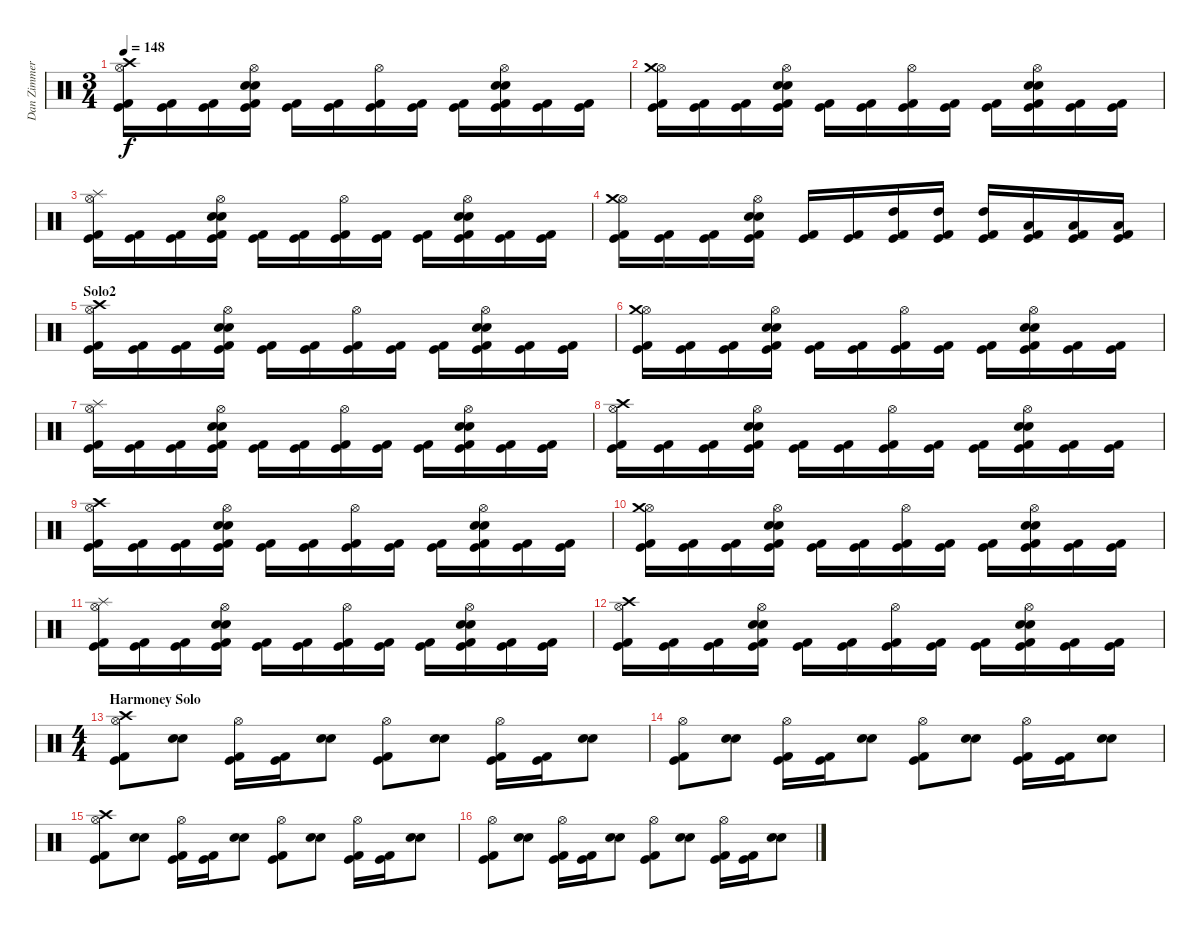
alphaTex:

\track ("Dan Zimmerman<Drum>" "Dan Zimmer") {instrument percussion}
\staff {score}
\articulation defaults
\ts (3 4)
\tempo 148
\clef neutral
\ks c
("Hi-Hat (open)" "Crash high (hit)" "Kick (hit) 2" "Kick (hit)").16{dy f} ("Kick (hit) 2" "Kick (hit)").16 ("Kick (hit) 2" "Kick (hit)").16 ("Hi-Hat (open)" "Electric Snare (hit)" "Snare (hit) 2" "Kick (hit) 2" "Kick (hit)").16 ("Kick (hit) 2" "Kick (hit)").16 ("Kick (hit) 2" "Kick (hit)").16 ("Hi-Hat (open)" "Kick (hit) 2" "Kick (hit)").16 ("Kick (hit) 2" "Kick (hit)").16 ("Kick (hit) 2" "Kick (hit)").16 ("Hi-Hat (open)" "Electric Snare (hit)" "Snare (hit) 2" "Kick (hit) 2" "Kick (hit)").16 ("Kick (hit) 2" "Kick (hit)").16 ("Kick (hit) 2" "Kick (hit)").16 |
("Hi-Hat (open)" "Crash medium (hit)" "Kick (hit) 2" "Kick (hit)").16 ("Kick (hit) 2" "Kick (hit)").16 ("Kick (hit) 2" "Kick (hit)").16 ("Hi-Hat (open)" "Electric Snare (hit)" "Snare (hit) 2" "Kick (hit) 2" "Kick (hit)").16 ("Kick (hit) 2" "Kick (hit)").16 ("Kick (hit) 2" "Kick (hit)").16 ("Hi-Hat (open)" "Kick (hit) 2" "Kick (hit)").16 ("Kick (hit) 2" "Kick (hit)").16 ("Kick (hit) 2" "Kick (hit)").16 ("Hi-Hat (open)" "Electric Snare (hit)" "Snare (hit) 2" "Kick (hit) 2" "Kick (hit)").16 ("Kick (hit) 2" "Kick (hit)").16 ("Kick (hit) 2" "Kick (hit)").16 |
("Hi-Hat (open)" "Splash (hit)" "Kick (hit) 2" "Kick (hit)").16 ("Kick (hit) 2" "Kick (hit)").16 ("Kick (hit) 2" "Kick (hit)").16 ("Hi-Hat (open)" "Electric Snare (hit)" "Snare (hit) 2" "Kick (hit) 2" "Kick (hit)").16 ("Kick (hit) 2" "Kick (hit)").16 ("Kick (hit) 2" "Kick (hit)").16 ("Hi-Hat (open)" "Kick (hit) 2" "Kick (hit)").16 ("Kick (hit) 2" "Kick (hit)").16 ("Kick (hit) 2" "Kick (hit)").16 ("Hi-Hat (open)" "Electric Snare (hit)" "Snare (hit) 2" "Kick (hit) 2" "Kick (hit)").16 ("Kick (hit) 2" "Kick (hit)").16 ("Kick (hit) 2" "Kick (hit)").16 |
("Hi-Hat (open)" "Crash medium (hit)" "Kick (hit) 2" "Kick (hit)").16 ("Kick (hit) 2" "Kick (hit)").16 ("Kick (hit) 2" "Kick (hit)").16 ("Hi-Hat (open)" "Electric Snare (hit)" "Snare (hit) 2" "Kick (hit) 2" "Kick (hit)").16 ("Kick (hit) 2" "Kick (hit)").16 ("Kick (hit) 2" "Kick (hit)").16 ("High Tom (hit)" "Kick (hit) 2" "Kick (hit)").16 ("High Tom (hit)" "Kick (hit) 2" "Kick (hit)").16 ("High Tom (hit)" "Kick (hit) 2" "Kick (hit)").16 ("Low Tom (hit)" "Kick (hit) 2" "Kick (hit)").16 ("Low Tom (hit)" "Kick (hit) 2" "Kick (hit)").16 ("Low Tom (hit)" "Kick (hit) 2" "Kick (hit)").16 |
\section ("" "Solo2")
("Hi-Hat (open)" "Crash high (hit)" "Kick (hit) 2" "Kick (hit)").16 ("Kick (hit) 2" "Kick (hit)").16 ("Kick (hit) 2" "Kick (hit)").16 ("Hi-Hat (open)" "Electric Snare (hit)" "Snare (hit) 2" "Kick (hit) 2" "Kick (hit)").16 ("Kick (hit) 2" "Kick (hit)").16 ("Kick (hit) 2" "Kick (hit)").16 ("Hi-Hat (open)" "Kick (hit) 2" "Kick (hit)").16 ("Kick (hit) 2" "Kick (hit)").16 ("Kick (hit) 2" "Kick (hit)").16 ("Hi-Hat (open)" "Electric Snare (hit)" "Snare (hit) 2" "Kick (hit) 2" "Kick (hit)").16 ("Kick (hit) 2" "Kick (hit)").16 ("Kick (hit) 2" "Kick (hit)").16 |
("Hi-Hat (open)" "Crash medium (hit)" "Kick (hit) 2" "Kick (hit)").16 ("Kick (hit) 2" "Kick (hit)").16 ("Kick (hit) 2" "Kick (hit)").16 ("Hi-Hat (open)" "Electric Snare (hit)" "Snare (hit) 2" "Kick (hit) 2" "Kick (hit)").16 ("Kick (hit) 2" "Kick (hit)").16 ("Kick (hit) 2" "Kick (hit)").16 ("Hi-Hat (open)" "Kick (hit) 2" "Kick (hit)").16 ("Kick (hit) 2" "Kick (hit)").16 ("Kick (hit) 2" "Kick (hit)").16 ("Hi-Hat (open)" "Electric Snare (hit)" "Snare (hit) 2" "Kick (hit) 2" "Kick (hit)").16 ("Kick (hit) 2" "Kick (hit)").16 ("Kick (hit) 2" "Kick (hit)").16 |
("Hi-Hat (open)" "Splash (hit)" "Kick (hit) 2" "Kick (hit)").16 ("Kick (hit) 2" "Kick (hit)").16 ("Kick (hit) 2" "Kick (hit)").16 ("Hi-Hat (open)" "Electric Snare (hit)" "Snare (hit) 2" "Kick (hit) 2" "Kick (hit)").16 ("Kick (hit) 2" "Kick (hit)").16 ("Kick (hit) 2" "Kick (hit)").16 ("Hi-Hat (open)" "Kick (hit) 2" "Kick (hit)").16 ("Kick (hit) 2" "Kick (hit)").16 ("Kick (hit) 2" "Kick (hit)").16 ("Hi-Hat (open)" "Electric Snare (hit)" "Snare (hit) 2" "Kick (hit) 2" "Kick (hit)").16 ("Kick (hit) 2" "Kick (hit)").16 ("Kick (hit) 2" "Kick (hit)").16 |
("Hi-Hat (open)" "Crash high (hit)" "Kick (hit) 2" "Kick (hit)").16 ("Kick (hit) 2" "Kick (hit)").16 ("Kick (hit) 2" "Kick (hit)").16 ("Hi-Hat (open)" "Electric Snare (hit)" "Snare (hit) 2" "Kick (hit) 2" "Kick (hit)").16 ("Kick (hit) 2" "Kick (hit)").16 ("Kick (hit) 2" "Kick (hit)").16 ("Hi-Hat (open)" "Kick (hit) 2" "Kick (hit)").16 ("Kick (hit) 2" "Kick (hit)").16 ("Kick (hit) 2" "Kick (hit)").16 ("Hi-Hat (open)" "Electric Snare (hit)" "Snare (hit) 2" "Kick (hit) 2" "Kick (hit)").16 ("Kick (hit) 2" "Kick (hit)").16 ("Kick (hit) 2" "Kick (hit)").16 |
("Hi-Hat (open)" "Crash high (hit)" "Kick (hit) 2" "Kick (hit)").16 ("Kick (hit) 2" "Kick (hit)").16 ("Kick (hit) 2" "Kick (hit)").16 ("Hi-Hat (open)" "Electric Snare (hit)" "Snare (hit) 2" "Kick (hit) 2" "Kick (hit)").16 ("Kick (hit) 2" "Kick (hit)").16 ("Kick (hit) 2" "Kick (hit)").16 ("Hi-Hat (open)" "Kick (hit) 2" "Kick (hit)").16 ("Kick (hit) 2" "Kick (hit)").16 ("Kick (hit) 2" "Kick (hit)").16 ("Hi-Hat (open)" "Electric Snare (hit)" "Snare (hit) 2" "Kick (hit) 2" "Kick (hit)").16 ("Kick (hit) 2" "Kick (hit)").16 ("Kick (hit) 2" "Kick (hit)").16 |
("Hi-Hat (open)" "Crash medium (hit)" "Kick (hit) 2" "Kick (hit)").16 ("Kick (hit) 2" "Kick (hit)").16 ("Kick (hit) 2" "Kick (hit)").16 ("Hi-Hat (open)" "Electric Snare (hit)" "Snare (hit) 2" "Kick (hit) 2" "Kick (hit)").16 ("Kick (hit) 2" "Kick (hit)").16 ("Kick (hit) 2" "Kick (hit)").16 ("Hi-Hat (open)" "Kick (hit) 2" "Kick (hit)").16 ("Kick (hit) 2" "Kick (hit)").16 ("Kick (hit) 2" "Kick (hit)").16 ("Hi-Hat (open)" "Electric Snare (hit)" "Snare (hit) 2" "Kick (hit) 2" "Kick (hit)").16 ("Kick (hit) 2" "Kick (hit)").16 ("Kick (hit) 2" "Kick (hit)").16 |
("Hi-Hat (open)" "Splash (hit)" "Kick (hit) 2" "Kick (hit)").16 ("Kick (hit) 2" "Kick (hit)").16 ("Kick (hit) 2" "Kick (hit)").16 ("Hi-Hat (open)" "Electric Snare (hit)" "Snare (hit) 2" "Kick (hit) 2" "Kick (hit)").16 ("Kick (hit) 2" "Kick (hit)").16 ("Kick (hit) 2" "Kick (hit)").16 ("Hi-Hat (open)" "Kick (hit) 2" "Kick (hit)").16 ("Kick (hit) 2" "Kick (hit)").16 ("Kick (hit) 2" "Kick (hit)").16 ("Hi-Hat (open)" "Electric Snare (hit)" "Snare (hit) 2" "Kick (hit) 2" "Kick (hit)").16 ("Kick (hit) 2" "Kick (hit)").16 ("Kick (hit) 2" "Kick (hit)").16 |
("Hi-Hat (open)" "Crash high (hit)" "Kick (hit) 2" "Kick (hit)").16 ("Kick (hit) 2" "Kick (hit)").16 ("Kick (hit) 2" "Kick (hit)").16 ("Hi-Hat (open)" "Electric Snare (hit)" "Snare (hit) 2" "Kick (hit) 2" "Kick (hit)").16 ("Kick (hit) 2" "Kick (hit)").16 ("Kick (hit) 2" "Kick (hit)").16 ("Hi-Hat (open)" "Kick (hit) 2" "Kick (hit)").16 ("Kick (hit) 2" "Kick (hit)").16 ("Kick (hit) 2" "Kick (hit)").16 ("Hi-Hat (open)" "Electric Snare (hit)" "Snare (hit) 2" "Kick (hit) 2" "Kick (hit)").16 ("Kick (hit) 2" "Kick (hit)").16 ("Kick (hit) 2" "Kick (hit)").16 |
\ts (4 4)
\section ("" "Harmoney Solo")
("Hi-Hat (open)" "Crash high (hit)" "Kick (hit) 2" "Kick (hit)").8 ("Snare (hit) 2" "Electric Snare (hit)").8 ("Hi-Hat (open)" "Kick (hit) 2" "Kick (hit)").16 ("Kick (hit) 2" "Kick (hit)").16 ("Snare (hit) 2" "Electric Snare (hit)").8 ("Hi-Hat (open)" "Kick (hit) 2" "Kick (hit)").8 ("Snare (hit) 2" "Electric Snare (hit)").8 ("Hi-Hat (open)" "Kick (hit) 2" "Kick (hit)").16 ("Kick (hit) 2" "Kick (hit)").16 ("Snare (hit) 2" "Electric Snare (hit)").8 |
("Hi-Hat (open)" "Kick (hit) 2" "Kick (hit)").8 ("Snare (hit) 2" "Electric Snare (hit)").8 ("Hi-Hat (open)" "Kick (hit) 2" "Kick (hit)").16 ("Kick (hit) 2" "Kick (hit)").16 ("Snare (hit) 2" "Electric Snare (hit)").8 ("Hi-Hat (open)" "Kick (hit) 2" "Kick (hit)").8 ("Snare (hit) 2" "Electric Snare (hit)").8 ("Hi-Hat (open)" "Kick (hit) 2" "Kick (hit)").16 ("Kick (hit) 2" "Kick (hit)").16 ("Snare (hit) 2" "Electric Snare (hit)").8 |
("Hi-Hat (open)" "Crash high (hit)" "Kick (hit) 2" "Kick (hit)").8 ("Snare (hit) 2" "Electric Snare (hit)").8 ("Hi-Hat (open)" "Kick (hit) 2" "Kick (hit)").16 ("Kick (hit) 2" "Kick (hit)").16 ("Snare (hit) 2" "Electric Snare (hit)").8 ("Hi-Hat (open)" "Kick (hit) 2" "Kick (hit)").8 ("Snare (hit) 2" "Electric Snare (hit)").8 ("Hi-Hat (open)" "Kick (hit) 2" "Kick (hit)").16 ("Kick (hit) 2" "Kick (hit)").16 ("Snare (hit) 2" "Electric Snare (hit)").8 |
("Hi-Hat (open)" "Kick (hit) 2" "Kick (hit)").8 ("Snare (hit) 2" "Electric Snare (hit)").8 ("Hi-Hat (open)" "Kick (hit) 2" "Kick (hit)").16 ("Kick (hit) 2" "Kick (hit)").16 ("Snare (hit) 2" "Electric Snare (hit)").8 ("Hi-Hat (open)" "Kick (hit) 2" "Kick (hit)").8 ("Snare (hit) 2" "Electric Snare (hit)").8 ("Hi-Hat (open)" "Kick (hit) 2" "Kick (hit)").16 ("Kick (hit) 2" "Kick (hit)").16 ("Snare (hit) 2" "Electric Snare (hit)").8
